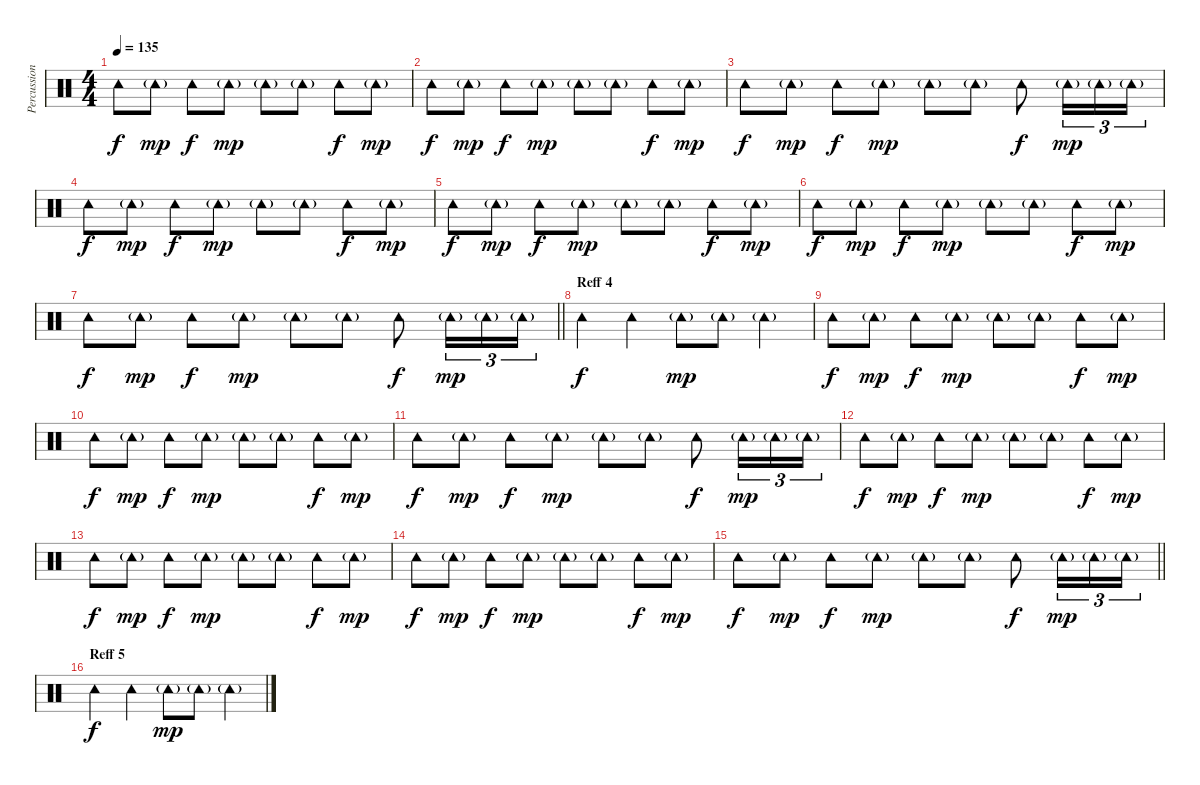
\track ("Percussion 2" "Percussion") {instrument percussion}
\staff {score}
\articulation defaults
\ts (4 4)
\tempo 135
\clef neutral
\ks c "Tambourine (hit)".8{dy f} "Tambourine (hit)"{g}.8{dy mp} "Tambourine (hit)".8{dy f} "Tambourine (hit)"{g}.8{dy mp} "Tambourine (hit)"{g}.8 "Tambourine (hit)"{g}.8 "Tambourine (hit)".8{dy f} "Tambourine (hit)"{g}.8{dy mp}
|
"Tambourine (hit)".8{dy f} "Tambourine (hit)"{g}.8{dy mp} "Tambourine (hit)".8{dy f} "Tambourine (hit)"{g}.8{dy mp} "Tambourine (hit)"{g}.8 "Tambourine (hit)"{g}.8 "Tambourine (hit)".8{dy f} "Tambourine (hit)"{g}.8{dy mp} |
"Tambourine (hit)".8{dy f} "Tambourine (hit)"{g}.8{dy mp} "Tambourine (hit)".8{dy f} "Tambourine (hit)"{g}.8{dy mp} "Tambourine (hit)"{g}.8 "Tambourine (hit)"{g}.8 "Tambourine (hit)".8{dy f} "Tambourine (hit)"{g}.16{tu (3 2) dy mp} "Tambourine (hit)"{g}.16{tu (3 2)} "Tambourine (hit)"{g}.16{tu (3 2)} |
"Tambourine (hit)".8{dy f} "Tambourine (hit)"{g}.8{dy mp} "Tambourine (hit)".8{dy f} "Tambourine (hit)"{g}.8{dy mp} "Tambourine (hit)"{g}.8 "Tambourine (hit)"{g}.8 "Tambourine (hit)".8{dy f} "Tambourine (hit)"{g}.8{dy mp} |
"Tambourine (hit)".8{dy f} "Tambourine (hit)"{g}.8{dy mp} "Tambourine (hit)".8{dy f} "Tambourine (hit)"{g}.8{dy mp} "Tambourine (hit)"{g}.8 "Tambourine (hit)"{g}.8 "Tambourine (hit)".8{dy f} "Tambourine (hit)"{g}.8{dy mp} |
"Tambourine (hit)".8{dy f} "Tambourine (hit)"{g}.8{dy mp} "Tambourine (hit)".8{dy f} "Tambourine (hit)"{g}.8{dy mp} "Tambourine (hit)"{g}.8 "Tambourine (hit)"{g}.8 "Tambourine (hit)".8{dy f} "Tambourine (hit)"{g}.8{dy mp} |
\barLineRight lightlight "Tambourine (hit)".8{dy f} "Tambourine (hit)"{g}.8{dy mp} "Tambourine (hit)".8{dy f} "Tambourine (hit)"{g}.8{dy mp} "Tambourine (hit)"{g}.8 "Tambourine (hit)"{g}.8 "Tambourine (hit)".8{dy f} "Tambourine (hit)"{g}.16{tu (3 2) dy mp} "Tambourine (hit)"{g}.16{tu (3 2)} "Tambourine (hit)"{g}.16{tu (3 2)}
|
\section ("" "Reff 4")
"Tambourine (hit)".4{dy f} "Tambourine (hit)".4 "Tambourine (hit)"{g}.8{dy mp} "Tambourine (hit)"{g}.8 "Tambourine (hit)"{g}.4 |
"Tambourine (hit)".8{dy f} "Tambourine (hit)"{g}.8{dy mp} "Tambourine (hit)".8{dy f} "Tambourine (hit)"{g}.8{dy mp} "Tambourine (hit)"{g}.8 "Tambourine (hit)"{g}.8 "Tambourine (hit)".8{dy f} "Tambourine (hit)"{g}.8{dy mp} |
"Tambourine (hit)".8{dy f} "Tambourine (hit)"{g}.8{dy mp} "Tambourine (hit)".8{dy f} "Tambourine (hit)"{g}.8{dy mp} "Tambourine (hit)"{g}.8 "Tambourine (hit)"{g}.8 "Tambourine (hit)".8{dy f} "Tambourine (hit)"{g}.8{dy mp} |
"Tambourine (hit)".8{dy f} "Tambourine (hit)"{g}.8{dy mp} "Tambourine (hit)".8{dy f} "Tambourine (hit)"{g}.8{dy mp} "Tambourine (hit)"{g}.8 "Tambourine (hit)"{g}.8 "Tambourine (hit)".8{dy f} "Tambourine (hit)"{g}.16{tu (3 2) dy mp} "Tambourine (hit)"{g}.16{tu (3 2)} "Tambourine (hit)"{g}.16{tu (3 2)} |
"Tambourine (hit)".8{dy f} "Tambourine (hit)"{g}.8{dy mp} "Tambourine (hit)".8{dy f} "Tambourine (hit)"{g}.8{dy mp} "Tambourine (hit)"{g}.8 "Tambourine (hit)"{g}.8 "Tambourine (hit)".8{dy f} "Tambourine (hit)"{g}.8{dy mp} |
"Tambourine (hit)".8{dy f} "Tambourine (hit)"{g}.8{dy mp} "Tambourine (hit)".8{dy f} "Tambourine (hit)"{g}.8{dy mp} "Tambourine (hit)"{g}.8 "Tambourine (hit)"{g}.8 "Tambourine (hit)".8{dy f} "Tambourine (hit)"{g}.8{dy mp} |
"Tambourine (hit)".8{dy f} "Tambourine (hit)"{g}.8{dy mp} "Tambourine (hit)".8{dy f} "Tambourine (hit)"{g}.8{dy mp} "Tambourine (hit)"{g}.8 "Tambourine (hit)"{g}.8 "Tambourine (hit)".8{dy f} "Tambourine (hit)"{g}.8{dy mp} |
\barLineRight lightlight "Tambourine (hit)".8{dy f} "Tambourine (hit)"{g}.8{dy mp} "Tambourine (hit)".8{dy f} "Tambourine (hit)"{g}.8{dy mp} "Tambourine (hit)"{g}.8 "Tambourine (hit)"{g}.8 "Tambourine (hit)".8{dy f} "Tambourine (hit)"{g}.16{tu (3 2) dy mp} "Tambourine (hit)"{g}.16{tu (3 2)} "Tambourine (hit)"{g}.16{tu (3 2)}
|
\section ("" "Reff 5")
"Tambourine (hit)".4{dy f} "Tambourine (hit)".4 "Tambourine (hit)"{g}.8{dy mp} "Tambourine (hit)"{g}.8 "Tambourine (hit)"{g}.4
